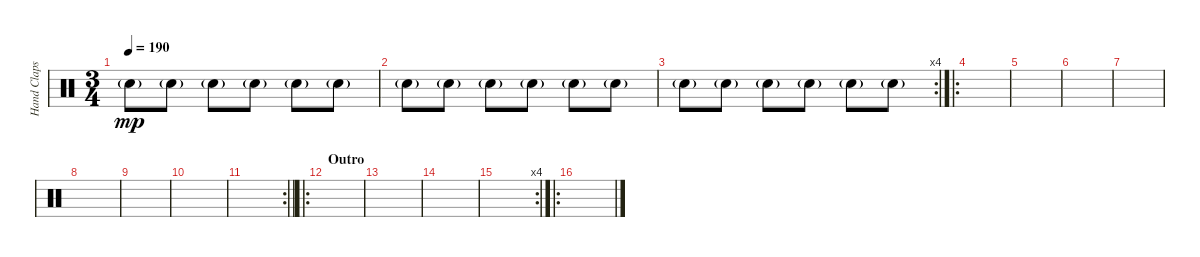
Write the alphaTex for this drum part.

\track ("Hand Claps" "Hand Claps") {instrument percussion bank 1}
\staff {score}
\articulation defaults
\ts (3 4)
\tempo 190
\clef neutral
\ks c "Hand Clap (hit)"{g}.8{dy mp} "Hand Clap (hit)"{g}.8 "Hand Clap (hit)"{g}.8 "Hand Clap (hit)"{g}.8 "Hand Clap (hit)"{g}.8 "Hand Clap (hit)"{g}.8
|
"Hand Clap (hit)"{g}.8 "Hand Clap (hit)"{g}.8 "Hand Clap (hit)"{g}.8 "Hand Clap (hit)"{g}.8 "Hand Clap (hit)"{g}.8 "Hand Clap (hit)"{g}.8 |
\rc 4 "Hand Clap (hit)"{g}.8 "Hand Clap (hit)"{g}.8 "Hand Clap (hit)"{g}.8 "Hand Clap (hit)"{g}.8 "Hand Clap (hit)"{g}.8 "Hand Clap (hit)"{g}.8
|
\ro
|
|
|
|
|
|
|
\rc 2
\barLineRight lightlight
|
\ro
\section ("" "Outro")
|
|
|
\rc 4
|
\ro
